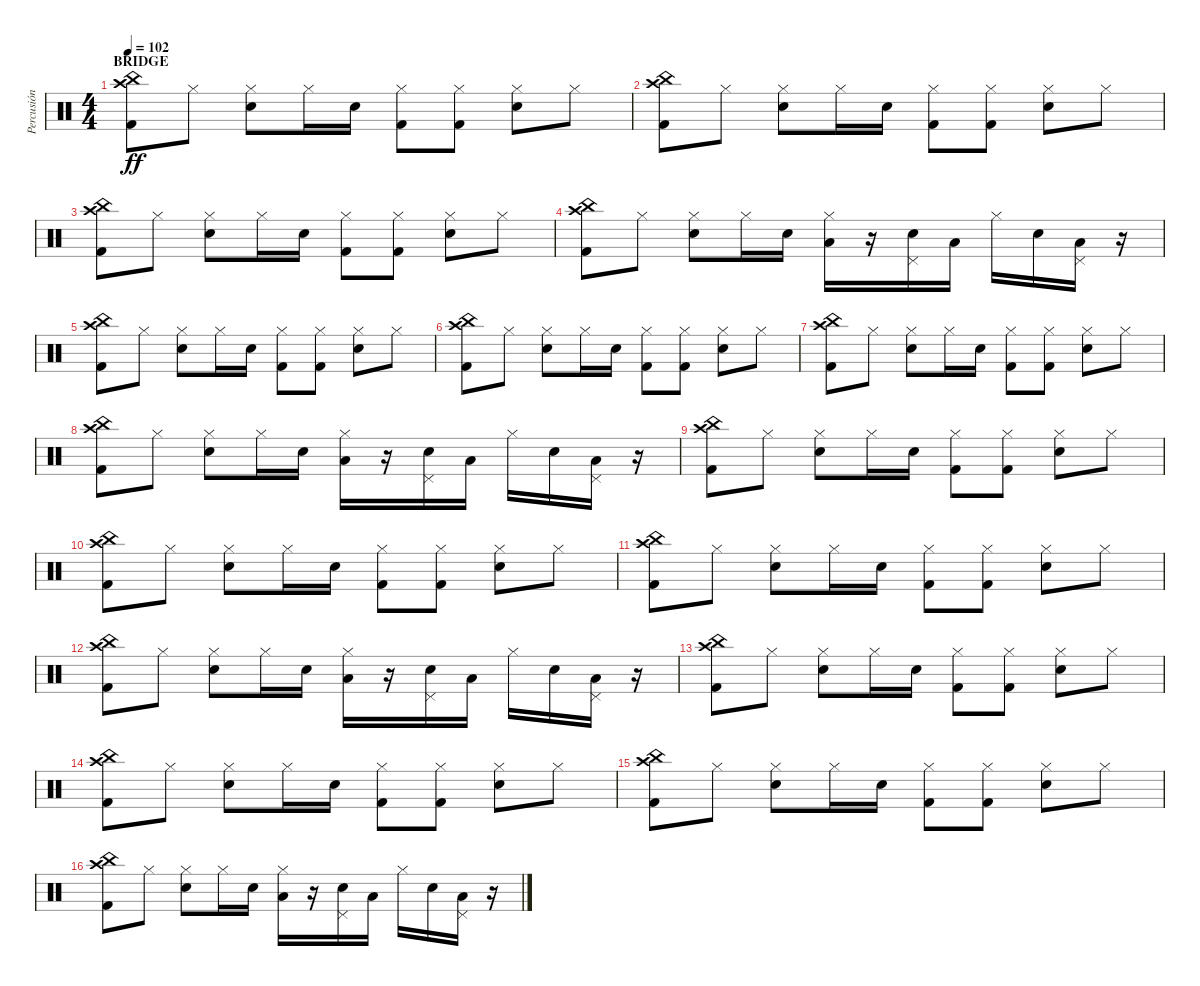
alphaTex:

\track ("Percusión" "Percusión") {instrument percussion}
\staff {score}
\articulation defaults
\ts (4 4)
\section ("" "BRIDGE")
\tempo 102
\clef neutral
\ks c
("Kick (hit) 2" "China (hit)" "Crash high (hit)").8{dy ff} "Hi-Hat (closed)".8 ("Electric Snare (hit)" "Hi-Hat (closed)").8 "Hi-Hat (closed)".16 "Electric Snare (hit)".16 ("Kick (hit) 2" "Hi-Hat (closed)").8 ("Kick (hit) 2" "Hi-Hat (closed)").8 ("Electric Snare (hit)" "Hi-Hat (closed)").8 "Hi-Hat (closed)".8 |
("Kick (hit) 2" "China (hit)" "Crash high (hit)").8 "Hi-Hat (closed)".8 ("Electric Snare (hit)" "Hi-Hat (closed)").8 "Hi-Hat (closed)".16 "Electric Snare (hit)".16 ("Kick (hit) 2" "Hi-Hat (closed)").8 ("Kick (hit) 2" "Hi-Hat (closed)").8 ("Electric Snare (hit)" "Hi-Hat (closed)").8 "Hi-Hat (closed)".8 |
("Kick (hit) 2" "China (hit)" "Crash high (hit)").8 "Hi-Hat (closed)".8 ("Electric Snare (hit)" "Hi-Hat (closed)").8 "Hi-Hat (closed)".16 "Electric Snare (hit)".16 ("Kick (hit) 2" "Hi-Hat (closed)").8 ("Kick (hit) 2" "Hi-Hat (closed)").8 ("Electric Snare (hit)" "Hi-Hat (closed)").8 "Hi-Hat (closed)".8 |
("Kick (hit) 2" "China (hit)" "Crash high (hit)").8 "Hi-Hat (closed)".8 ("Electric Snare (hit)" "Hi-Hat (closed)").8 "Hi-Hat (closed)".16 "Electric Snare (hit)".16 ("Low Tom (hit)" "Hi-Hat (closed)").16 r.16 ("Electric Snare (hit)" "Pedal Hi-Hat (hit)").16 "Low Tom (hit)".16 "Hi-Hat (closed)".16 "Electric Snare (hit)".16 ("Low Tom (hit)" "Pedal Hi-Hat (hit)").16 r.16 |
("Kick (hit) 2" "China (hit)" "Crash high (hit)").8 "Hi-Hat (closed)".8 ("Electric Snare (hit)" "Hi-Hat (closed)").8 "Hi-Hat (closed)".16 "Electric Snare (hit)".16 ("Kick (hit) 2" "Hi-Hat (closed)").8 ("Kick (hit) 2" "Hi-Hat (closed)").8 ("Electric Snare (hit)" "Hi-Hat (closed)").8 "Hi-Hat (closed)".8 |
("Kick (hit) 2" "China (hit)" "Crash high (hit)").8 "Hi-Hat (closed)".8 ("Electric Snare (hit)" "Hi-Hat (closed)").8 "Hi-Hat (closed)".16 "Electric Snare (hit)".16 ("Kick (hit) 2" "Hi-Hat (closed)").8 ("Kick (hit) 2" "Hi-Hat (closed)").8 ("Electric Snare (hit)" "Hi-Hat (closed)").8 "Hi-Hat (closed)".8 |
("Kick (hit) 2" "China (hit)" "Crash high (hit)").8 "Hi-Hat (closed)".8 ("Electric Snare (hit)" "Hi-Hat (closed)").8 "Hi-Hat (closed)".16 "Electric Snare (hit)".16 ("Kick (hit) 2" "Hi-Hat (closed)").8 ("Kick (hit) 2" "Hi-Hat (closed)").8 ("Electric Snare (hit)" "Hi-Hat (closed)").8 "Hi-Hat (closed)".8 |
("Kick (hit) 2" "China (hit)" "Crash high (hit)").8 "Hi-Hat (closed)".8 ("Electric Snare (hit)" "Hi-Hat (closed)").8 "Hi-Hat (closed)".16 "Electric Snare (hit)".16 ("Low Tom (hit)" "Hi-Hat (closed)").16 r.16 ("Electric Snare (hit)" "Pedal Hi-Hat (hit)").16 "Low Tom (hit)".16 "Hi-Hat (closed)".16 "Electric Snare (hit)".16 ("Low Tom (hit)" "Pedal Hi-Hat (hit)").16 r.16 |
("Kick (hit) 2" "China (hit)" "Crash high (hit)").8 "Hi-Hat (closed)".8 ("Electric Snare (hit)" "Hi-Hat (closed)").8 "Hi-Hat (closed)".16 "Electric Snare (hit)".16 ("Kick (hit) 2" "Hi-Hat (closed)").8 ("Kick (hit) 2" "Hi-Hat (closed)").8 ("Electric Snare (hit)" "Hi-Hat (closed)").8 "Hi-Hat (closed)".8 |
("Kick (hit) 2" "China (hit)" "Crash high (hit)").8 "Hi-Hat (closed)".8 ("Electric Snare (hit)" "Hi-Hat (closed)").8 "Hi-Hat (closed)".16 "Electric Snare (hit)".16 ("Kick (hit) 2" "Hi-Hat (closed)").8 ("Kick (hit) 2" "Hi-Hat (closed)").8 ("Electric Snare (hit)" "Hi-Hat (closed)").8 "Hi-Hat (closed)".8 |
("Kick (hit) 2" "China (hit)" "Crash high (hit)").8 "Hi-Hat (closed)".8 ("Electric Snare (hit)" "Hi-Hat (closed)").8 "Hi-Hat (closed)".16 "Electric Snare (hit)".16 ("Kick (hit) 2" "Hi-Hat (closed)").8 ("Kick (hit) 2" "Hi-Hat (closed)").8 ("Electric Snare (hit)" "Hi-Hat (closed)").8 "Hi-Hat (closed)".8 |
("Kick (hit) 2" "China (hit)" "Crash high (hit)").8 "Hi-Hat (closed)".8 ("Electric Snare (hit)" "Hi-Hat (closed)").8 "Hi-Hat (closed)".16 "Electric Snare (hit)".16 ("Low Tom (hit)" "Hi-Hat (closed)").16 r.16 ("Electric Snare (hit)" "Pedal Hi-Hat (hit)").16 "Low Tom (hit)".16 "Hi-Hat (closed)".16 "Electric Snare (hit)".16 ("Low Tom (hit)" "Pedal Hi-Hat (hit)").16 r.16 |
("Kick (hit) 2" "China (hit)" "Crash high (hit)").8 "Hi-Hat (closed)".8 ("Electric Snare (hit)" "Hi-Hat (closed)").8 "Hi-Hat (closed)".16 "Electric Snare (hit)".16 ("Kick (hit) 2" "Hi-Hat (closed)").8 ("Kick (hit) 2" "Hi-Hat (closed)").8 ("Electric Snare (hit)" "Hi-Hat (closed)").8 "Hi-Hat (closed)".8 |
("Kick (hit) 2" "China (hit)" "Crash high (hit)").8 "Hi-Hat (closed)".8 ("Electric Snare (hit)" "Hi-Hat (closed)").8 "Hi-Hat (closed)".16 "Electric Snare (hit)".16 ("Kick (hit) 2" "Hi-Hat (closed)").8 ("Kick (hit) 2" "Hi-Hat (closed)").8 ("Electric Snare (hit)" "Hi-Hat (closed)").8 "Hi-Hat (closed)".8 |
("Kick (hit) 2" "China (hit)" "Crash high (hit)").8 "Hi-Hat (closed)".8 ("Electric Snare (hit)" "Hi-Hat (closed)").8 "Hi-Hat (closed)".16 "Electric Snare (hit)".16 ("Kick (hit) 2" "Hi-Hat (closed)").8 ("Kick (hit) 2" "Hi-Hat (closed)").8 ("Electric Snare (hit)" "Hi-Hat (closed)").8 "Hi-Hat (closed)".8 |
("Kick (hit) 2" "China (hit)" "Crash high (hit)").8 "Hi-Hat (closed)".8 ("Electric Snare (hit)" "Hi-Hat (closed)").8 "Hi-Hat (closed)".16 "Electric Snare (hit)".16 ("Low Tom (hit)" "Hi-Hat (closed)").16 r.16 ("Electric Snare (hit)" "Pedal Hi-Hat (hit)").16 "Low Tom (hit)".16 "Hi-Hat (closed)".16 "Electric Snare (hit)".16 ("Low Tom (hit)" "Pedal Hi-Hat (hit)").16 r.16
